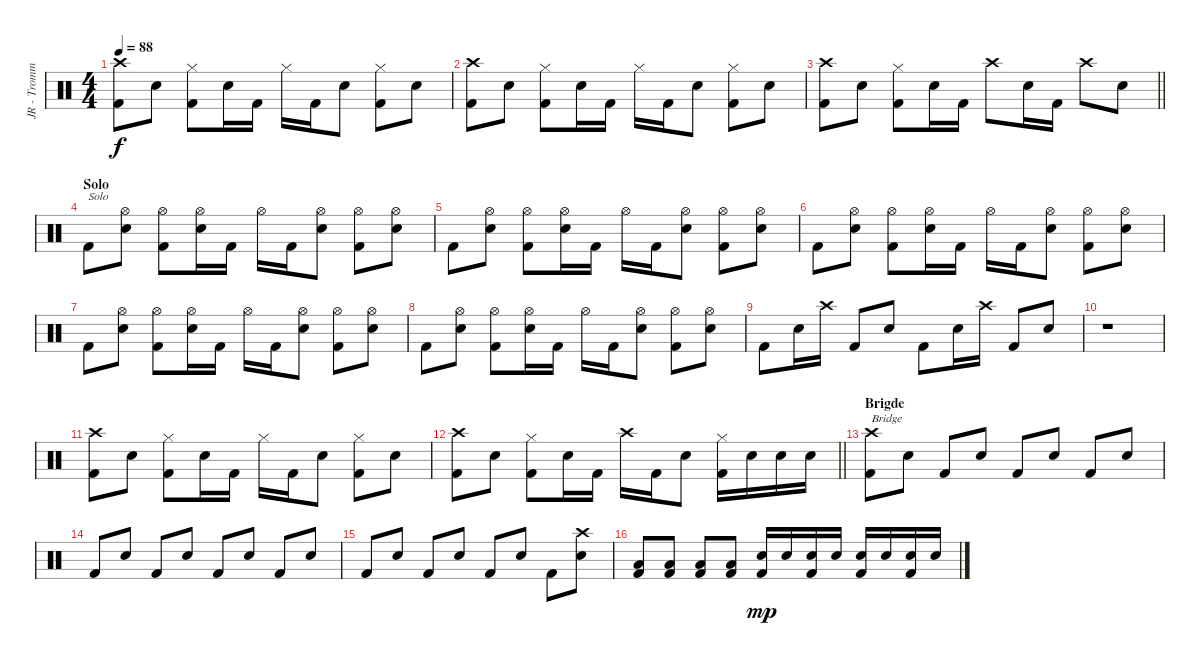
\track ("JR - Trommesett" "JR - Tromm") {instrument percussion}
\staff {score}
\articulation defaults
\ts (4 4)
\tempo 88
\clef neutral
\ks c
("Crash high (hit)" "Kick (hit) 2").8{dy f} "Electric Snare (hit)".8 ("Hi-Hat (closed)" "Kick (hit) 2").8 "Electric Snare (hit)".16 "Kick (hit) 2".16 "Hi-Hat (closed)".16 "Kick (hit) 2".16 "Electric Snare (hit)".8 ("Hi-Hat (closed)" "Kick (hit) 2").8 "Electric Snare (hit)".8 |
("Crash high (hit)" "Kick (hit) 2").8 "Electric Snare (hit)".8 ("Hi-Hat (closed)" "Kick (hit) 2").8 "Electric Snare (hit)".16 "Kick (hit) 2".16 "Hi-Hat (closed)".16 "Kick (hit) 2".16 "Electric Snare (hit)".8 ("Hi-Hat (closed)" "Kick (hit) 2").8 "Electric Snare (hit)".8 |
\barLineRight lightlight
("Crash high (hit)" "Kick (hit) 2").8 "Electric Snare (hit)".8 ("Hi-Hat (closed)" "Kick (hit) 2").8 "Electric Snare (hit)".16 "Kick (hit) 2".16 "Crash high (hit)".8 "Electric Snare (hit)".16 "Kick (hit) 2".16 "Crash high (hit)".8 "Electric Snare (hit)".8 |
\section ("" "Solo")
"Kick (hit) 2".8{txt "Solo"} ("Hi-Hat (open)" "Electric Snare (hit)").8 ("Hi-Hat (open)" "Kick (hit) 2").8 ("Hi-Hat (open)" "Electric Snare (hit)").16 "Kick (hit) 2".16 "Hi-Hat (open)".16 "Kick (hit) 2".16 ("Hi-Hat (open)" "Electric Snare (hit)").8 ("Hi-Hat (open)" "Kick (hit) 2").8 ("Hi-Hat (open)" "Electric Snare (hit)").8 |
"Kick (hit) 2".8 ("Hi-Hat (open)" "Electric Snare (hit)").8 ("Hi-Hat (open)" "Kick (hit) 2").8 ("Hi-Hat (open)" "Electric Snare (hit)").16 "Kick (hit) 2".16 "Hi-Hat (open)".16 "Kick (hit) 2".16 ("Hi-Hat (open)" "Electric Snare (hit)").8 ("Hi-Hat (open)" "Kick (hit) 2").8 ("Hi-Hat (open)" "Electric Snare (hit)").8 |
"Kick (hit) 2".8 ("Hi-Hat (open)" "Electric Snare (hit)").8 ("Hi-Hat (open)" "Kick (hit) 2").8 ("Hi-Hat (open)" "Electric Snare (hit)").16 "Kick (hit) 2".16 "Hi-Hat (open)".16 "Kick (hit) 2".16 ("Hi-Hat (open)" "Electric Snare (hit)").8 ("Hi-Hat (open)" "Kick (hit) 2").8 ("Hi-Hat (open)" "Electric Snare (hit)").8 |
"Kick (hit) 2".8 ("Hi-Hat (open)" "Electric Snare (hit)").8 ("Hi-Hat (open)" "Kick (hit) 2").8 ("Hi-Hat (open)" "Electric Snare (hit)").16 "Kick (hit) 2".16 "Hi-Hat (open)".16 "Kick (hit) 2".16 ("Hi-Hat (open)" "Electric Snare (hit)").8 ("Hi-Hat (open)" "Kick (hit) 2").8 ("Hi-Hat (open)" "Electric Snare (hit)").8 |
"Kick (hit) 2".8 ("Hi-Hat (open)" "Electric Snare (hit)").8 ("Hi-Hat (open)" "Kick (hit) 2").8 ("Hi-Hat (open)" "Electric Snare (hit)").16 "Kick (hit) 2".16 "Hi-Hat (open)".16 "Kick (hit) 2".16 ("Hi-Hat (open)" "Electric Snare (hit)").8 ("Hi-Hat (open)" "Kick (hit) 2").8 ("Hi-Hat (open)" "Electric Snare (hit)").8 |
"Kick (hit) 2".8 "Electric Snare (hit)".16 "Crash high (hit)".16 "Kick (hit) 2".8 "Electric Snare (hit)".8 "Kick (hit) 2".8 "Electric Snare (hit)".16 "Crash high (hit)".16 "Kick (hit) 2".8 "Electric Snare (hit)".8 |
r.1 |
("Crash high (hit)" "Kick (hit) 2").8 "Electric Snare (hit)".8 ("Hi-Hat (closed)" "Kick (hit) 2").8 "Electric Snare (hit)".16 "Kick (hit) 2".16 "Hi-Hat (closed)".16 "Kick (hit) 2".16 "Electric Snare (hit)".8 ("Hi-Hat (closed)" "Kick (hit) 2").8 "Electric Snare (hit)".8 |
\barLineRight lightlight
("Crash high (hit)" "Kick (hit) 2").8 "Electric Snare (hit)".8 ("Hi-Hat (closed)" "Kick (hit) 2").8 "Electric Snare (hit)".16 "Kick (hit) 2".16 "Crash high (hit)".16 "Kick (hit) 2".16 "Electric Snare (hit)".8 ("Hi-Hat (closed)" "Kick (hit) 2").16 "Electric Snare (hit)".16 "Electric Snare (hit)".16 "Electric Snare (hit)".16 |
\section ("" "Brigde")
("Crash high (hit)" "Kick (hit) 2").8{txt "Bridge"} "Electric Snare (hit)".8 "Kick (hit) 2".8 "Electric Snare (hit)".8 "Kick (hit) 2".8 "Electric Snare (hit)".8 "Kick (hit) 2".8 "Electric Snare (hit)".8 |
"Kick (hit) 2".8 "Electric Snare (hit)".8 "Kick (hit) 2".8 "Electric Snare (hit)".8 "Kick (hit) 2".8 "Electric Snare (hit)".8 "Kick (hit) 2".8 "Electric Snare (hit)".8 |
"Kick (hit) 2".8 "Electric Snare (hit)".8 "Kick (hit) 2".8 "Electric Snare (hit)".8 "Kick (hit) 2".8 "Electric Snare (hit)".8 "Kick (hit) 2".8 ("Crash high (hit)" "Electric Snare (hit)").8 |
("Low Tom (hit)" "Kick (hit) 2").8 ("Low Tom (hit)" "Kick (hit) 2").8 ("Low Tom (hit)" "Kick (hit) 2").8 ("Low Tom (hit)" "Kick (hit) 2").8 ("Electric Snare (hit)" "Kick (hit) 2").16{dy mp} "Electric Snare (hit)".16 ("Electric Snare (hit)" "Kick (hit) 2").16 "Electric Snare (hit)".16 ("Electric Snare (hit)" "Kick (hit) 2").16 "Electric Snare (hit)".16 ("Electric Snare (hit)" "Kick (hit) 2").16 "Electric Snare (hit)".16
